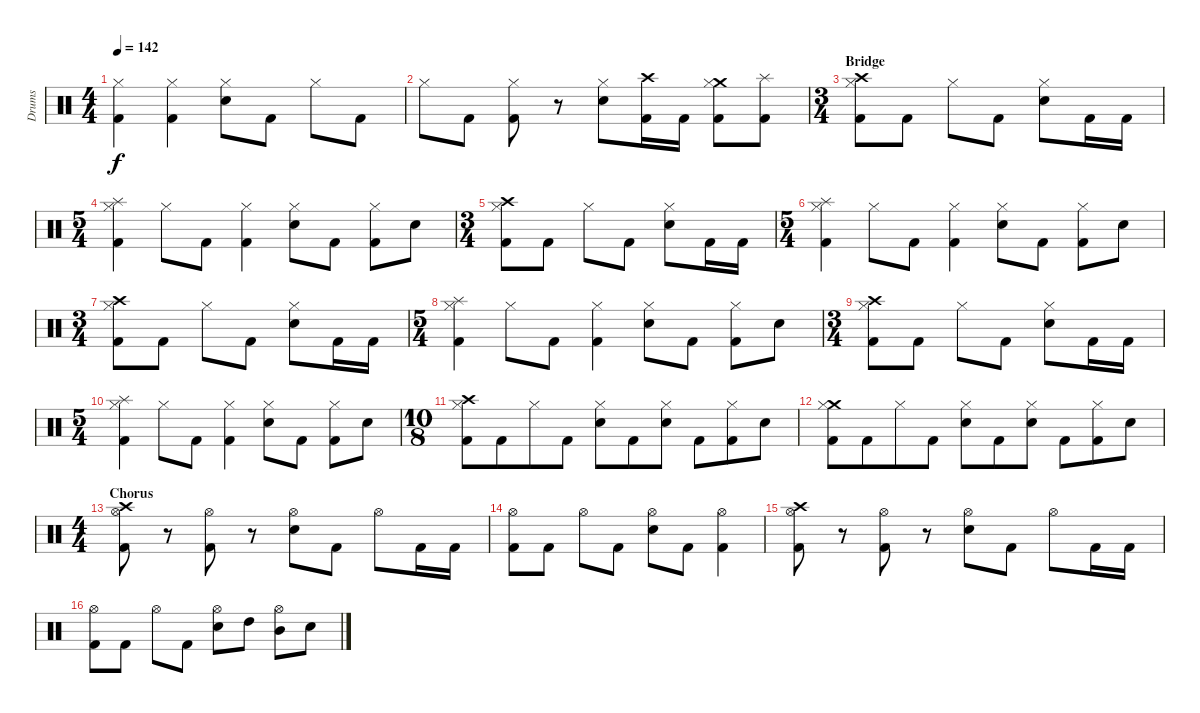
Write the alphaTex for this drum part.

\track ("Drums" "Drums") {instrument percussion}
\staff {score}
\articulation defaults
\ts (4 4)
\tempo 142
\clef neutral
\ks c
("Hi-Hat (closed)" "Kick (hit) 2").4{dy f} ("Hi-Hat (closed)" "Kick (hit) 2").4 ("Hi-Hat (closed)" "Electric Snare (hit)").8 "Kick (hit) 2".8 "Hi-Hat (closed)".8 "Kick (hit) 2".8 |
"Hi-Hat (closed)".8 "Kick (hit) 2".8 ("Hi-Hat (closed)" "Kick (hit) 2").8 r.8 ("Hi-Hat (closed)" "Electric Snare (hit)").8 ("Crash high (hit)" "Kick (hit) 2").16 "Kick (hit) 2".16 ("Crash medium (hit)" "Hi-Hat (closed)" "Kick (hit) 2").8 ("Splash (hit)" "Kick (hit) 2").8 |
\ts (3 4)
\section ("" "Bridge")
("Crash high (hit)" "Hi-Hat (closed)" "Kick (hit) 2").8 "Kick (hit) 2".8 "Hi-Hat (closed)".8 "Kick (hit) 2".8 ("Hi-Hat (closed)" "Electric Snare (hit)").8 "Kick (hit) 2".16 "Kick (hit) 2".16 |
\ts (5 4)
("Splash (hit)" "Hi-Hat (closed)" "Kick (hit) 2").4 "Hi-Hat (closed)".8 "Kick (hit) 2".8 ("Hi-Hat (closed)" "Kick (hit) 2").4 ("Hi-Hat (closed)" "Electric Snare (hit)").8 "Kick (hit) 2".8 ("Hi-Hat (closed)" "Kick (hit) 2").8 "Electric Snare (hit)".8 |
\ts (3 4)
("Crash high (hit)" "Hi-Hat (closed)" "Kick (hit) 2").8 "Kick (hit) 2".8 "Hi-Hat (closed)".8 "Kick (hit) 2".8 ("Hi-Hat (closed)" "Electric Snare (hit)").8 "Kick (hit) 2".16 "Kick (hit) 2".16 |
\ts (5 4)
("Splash (hit)" "Hi-Hat (closed)" "Kick (hit) 2").4 "Hi-Hat (closed)".8 "Kick (hit) 2".8 ("Hi-Hat (closed)" "Kick (hit) 2").4 ("Hi-Hat (closed)" "Electric Snare (hit)").8 "Kick (hit) 2".8 ("Hi-Hat (closed)" "Kick (hit) 2").8 "Electric Snare (hit)".8 |
\ts (3 4)
("Crash high (hit)" "Hi-Hat (closed)" "Kick (hit) 2").8 "Kick (hit) 2".8 "Hi-Hat (closed)".8 "Kick (hit) 2".8 ("Hi-Hat (closed)" "Electric Snare (hit)").8 "Kick (hit) 2".16 "Kick (hit) 2".16 |
\ts (5 4)
("Splash (hit)" "Hi-Hat (closed)" "Kick (hit) 2").4 "Hi-Hat (closed)".8 "Kick (hit) 2".8 ("Hi-Hat (closed)" "Kick (hit) 2").4 ("Hi-Hat (closed)" "Electric Snare (hit)").8 "Kick (hit) 2".8 ("Hi-Hat (closed)" "Kick (hit) 2").8 "Electric Snare (hit)".8 |
\ts (3 4)
("Crash high (hit)" "Hi-Hat (closed)" "Kick (hit) 2").8 "Kick (hit) 2".8 "Hi-Hat (closed)".8 "Kick (hit) 2".8 ("Hi-Hat (closed)" "Electric Snare (hit)").8 "Kick (hit) 2".16 "Kick (hit) 2".16 |
\ts (5 4)
("Splash (hit)" "Hi-Hat (closed)" "Kick (hit) 2").4 "Hi-Hat (closed)".8 "Kick (hit) 2".8 ("Hi-Hat (closed)" "Kick (hit) 2").4 ("Hi-Hat (closed)" "Electric Snare (hit)").8 "Kick (hit) 2".8 ("Hi-Hat (closed)" "Kick (hit) 2").8 "Electric Snare (hit)".8 |
\ts (10 8)
("Crash high (hit)" "Hi-Hat (closed)" "Kick (hit) 2").8 "Kick (hit) 2".8 "Hi-Hat (closed)".8 "Kick (hit) 2".8 ("Hi-Hat (closed)" "Electric Snare (hit)").8 "Kick (hit) 2".8 ("Hi-Hat (closed)" "Electric Snare (hit)").8 "Kick (hit) 2".8 ("Hi-Hat (closed)" "Kick (hit) 2").8 "Electric Snare (hit)".8 |
("Crash medium (hit)" "Hi-Hat (closed)" "Kick (hit) 2").8 "Kick (hit) 2".8 "Hi-Hat (closed)".8 "Kick (hit) 2".8 ("Hi-Hat (closed)" "Electric Snare (hit)").8 "Kick (hit) 2".8 ("Hi-Hat (closed)" "Electric Snare (hit)").8 "Kick (hit) 2".8 ("Hi-Hat (closed)" "Kick (hit) 2").8 "Electric Snare (hit)".8 |
\ts (4 4)
\section ("" "Chorus")
("Crash high (hit)" "Hi-Hat (open)" "Kick (hit) 2").8 r.8 ("Hi-Hat (open)" "Kick (hit) 2").8 r.8 ("Hi-Hat (open)" "Electric Snare (hit)").8 "Kick (hit) 2".8 "Hi-Hat (open)".8 "Kick (hit) 2".16 "Kick (hit) 2".16 |
("Hi-Hat (open)" "Kick (hit) 2").8 "Kick (hit) 2".8 "Hi-Hat (open)".8 "Kick (hit) 2".8 ("Hi-Hat (open)" "Electric Snare (hit)").8 "Kick (hit) 2".8 ("Hi-Hat (open)" "Kick (hit) 2").4 |
("Crash high (hit)" "Hi-Hat (open)" "Kick (hit) 2").8 r.8 ("Hi-Hat (open)" "Kick (hit) 2").8 r.8 ("Hi-Hat (open)" "Electric Snare (hit)").8 "Kick (hit) 2".8 "Hi-Hat (open)".8 "Kick (hit) 2".16 "Kick (hit) 2".16 |
("Hi-Hat (open)" "Kick (hit) 2").8 "Kick (hit) 2".8 "Hi-Hat (open)".8 "Kick (hit) 2".8 ("Hi-Hat (open)" "Electric Snare (hit)").8 "High Tom (hit)".8 ("Hi-Hat (open)" "Mid Tom (hit)").8 "Electric Snare (hit)".8
